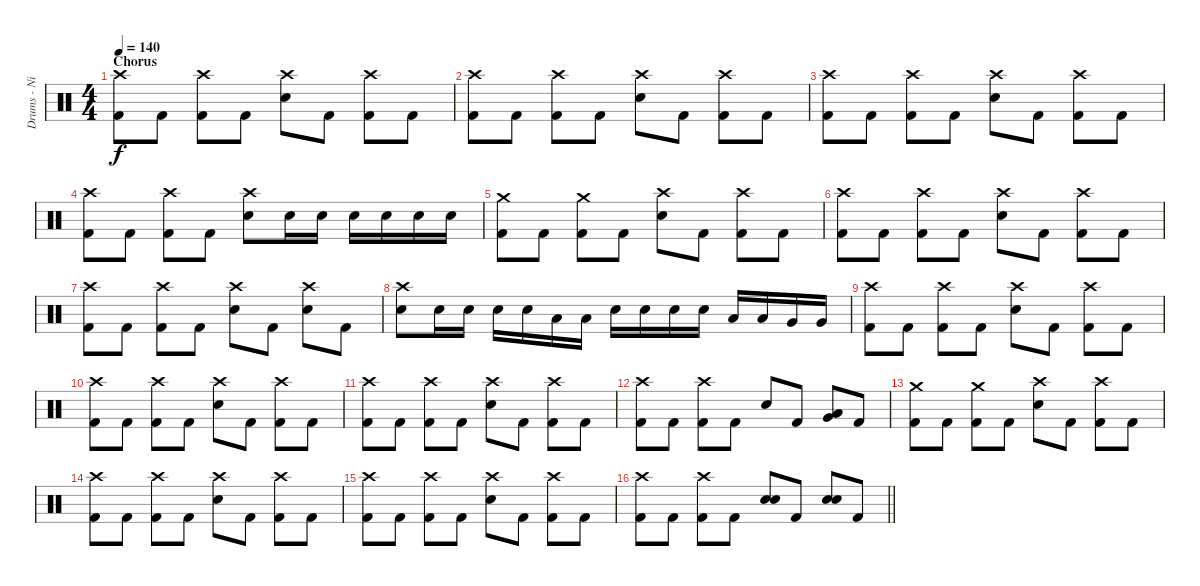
\track ("Drums - Nick" "Drums - Ni") {instrument percussion}
\staff {score}
\articulation defaults
\ts (4 4)
\section ("" "Chorus")
\tempo 140
\clef neutral
\ks c
("Crash high (hit)" "Kick (hit) 2").8{dy f} "Kick (hit) 2".8 ("Crash high (hit)" "Kick (hit) 2").8 "Kick (hit) 2".8 ("Crash high (hit)" "Snare (hit) 2").8 "Kick (hit) 2".8 ("Crash high (hit)" "Kick (hit) 2").8 "Kick (hit) 2".8 |
("Crash high (hit)" "Kick (hit) 2").8 "Kick (hit) 2".8 ("Crash high (hit)" "Kick (hit) 2").8 "Kick (hit) 2".8 ("Crash high (hit)" "Snare (hit) 2").8 "Kick (hit) 2".8 ("Crash high (hit)" "Kick (hit) 2").8 "Kick (hit) 2".8 |
("Crash high (hit)" "Kick (hit) 2").8 "Kick (hit) 2".8 ("Crash high (hit)" "Kick (hit) 2").8 "Kick (hit) 2".8 ("Crash high (hit)" "Snare (hit) 2").8 "Kick (hit) 2".8 ("Crash high (hit)" "Kick (hit) 2").8 "Kick (hit) 2".8 |
("Crash high (hit)" "Kick (hit) 2").8 "Kick (hit) 2".8 ("Crash high (hit)" "Kick (hit) 2").8 "Kick (hit) 2".8 ("Crash high (hit)" "Snare (hit) 2").8 "Snare (hit) 2".16 "Snare (hit) 2".16 "Snare (hit) 2".16 "Snare (hit) 2".16 "Snare (hit) 2".16 "Snare (hit) 2".16 |
("Crash medium (hit)" "Kick (hit) 2").8 "Kick (hit) 2".8 ("Crash medium (hit)" "Kick (hit) 2").8 "Kick (hit) 2".8 ("Crash high (hit)" "Snare (hit) 2").8 "Kick (hit) 2".8 ("Crash high (hit)" "Kick (hit) 2").8 "Kick (hit) 2".8 |
("Crash high (hit)" "Kick (hit) 2").8 "Kick (hit) 2".8 ("Crash high (hit)" "Kick (hit) 2").8 "Kick (hit) 2".8 ("Crash high (hit)" "Snare (hit) 2").8 "Kick (hit) 2".8 ("Crash high (hit)" "Kick (hit) 2").8 "Kick (hit) 2".8 |
("Crash high (hit)" "Kick (hit) 2").8 "Kick (hit) 2".8 ("Crash high (hit)" "Kick (hit) 2").8 "Kick (hit) 2".8 ("Crash high (hit)" "Snare (hit) 2").8 "Kick (hit) 2".8 ("Crash high (hit)" "Snare (hit) 2").8 "Kick (hit) 2".8 |
("Snare (hit) 2" "Crash high (hit)").8 "Snare (hit) 2".16 "Snare (hit) 2".16 "Snare (hit) 2".16 "Snare (hit) 2".16 "Low Tom (hit)".16 "Low Tom (hit)".16 "Snare (hit) 2".16 "Snare (hit) 2".16 "Snare (hit) 2".16 "Snare (hit) 2".16 "Low Tom (hit)".16 "Low Tom (hit)".16 "Very Low Tom (hit)".16 "Very Low Tom (hit)".16 |
("Crash high (hit)" "Kick (hit) 2").8 "Kick (hit) 2".8 ("Crash high (hit)" "Kick (hit) 2").8 "Kick (hit) 2".8 ("Crash high (hit)" "Snare (hit) 2").8 "Kick (hit) 2".8 ("Crash high (hit)" "Kick (hit) 2").8 "Kick (hit) 2".8 |
("Crash high (hit)" "Kick (hit) 2").8 "Kick (hit) 2".8 ("Crash high (hit)" "Kick (hit) 2").8 "Kick (hit) 2".8 ("Crash high (hit)" "Snare (hit) 2").8 "Kick (hit) 2".8 ("Crash high (hit)" "Kick (hit) 2").8 "Kick (hit) 2".8 |
("Crash high (hit)" "Kick (hit) 2").8 "Kick (hit) 2".8 ("Crash high (hit)" "Kick (hit) 2").8 "Kick (hit) 2".8 ("Crash high (hit)" "Snare (hit) 2").8 "Kick (hit) 2".8 ("Crash high (hit)" "Kick (hit) 2").8 "Kick (hit) 2".8 |
("Crash high (hit)" "Kick (hit) 2").8 "Kick (hit) 2".8 ("Crash high (hit)" "Kick (hit) 2").8 "Kick (hit) 2".8 "Snare (hit) 2".8 "Kick (hit) 2".8 ("Very Low Tom (hit)" "Low Tom (hit)").8 "Kick (hit) 2".8 |
("Crash medium (hit)" "Kick (hit) 2").8 "Kick (hit) 2".8 ("Crash medium (hit)" "Kick (hit) 2").8 "Kick (hit) 2".8 ("Crash high (hit)" "Snare (hit) 2").8 "Kick (hit) 2".8 ("Crash high (hit)" "Kick (hit) 2").8 "Kick (hit) 2".8 |
("Crash high (hit)" "Kick (hit) 2").8 "Kick (hit) 2".8 ("Crash high (hit)" "Kick (hit) 2").8 "Kick (hit) 2".8 ("Crash high (hit)" "Snare (hit) 2").8 "Kick (hit) 2".8 ("Crash high (hit)" "Kick (hit) 2").8 "Kick (hit) 2".8 |
("Crash high (hit)" "Kick (hit) 2").8 "Kick (hit) 2".8 ("Crash high (hit)" "Kick (hit) 2").8 "Kick (hit) 2".8 ("Crash high (hit)" "Snare (hit) 2").8 "Kick (hit) 2".8 ("Crash high (hit)" "Kick (hit) 2").8 "Kick (hit) 2".8 |
\barLineRight lightlight
("Crash high (hit)" "Kick (hit) 2").8 "Kick (hit) 2".8 ("Crash high (hit)" "Kick (hit) 2").8 "Kick (hit) 2".8 ("Snare (hit) 2" "Snare (hit) 2").8{bd 30} "Kick (hit) 2".8 ("Snare (hit) 2" "Snare (hit) 2").8{bd 30} "Kick (hit) 2".8
